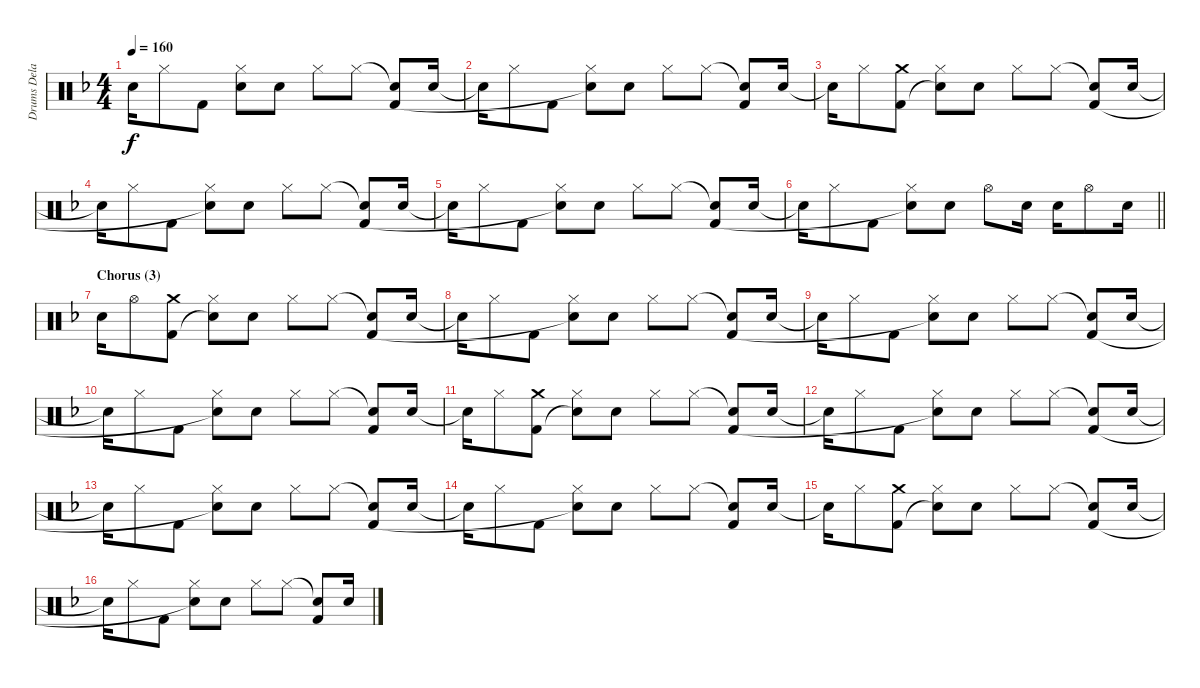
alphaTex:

\track ("Drums Delay 2" "Drums Dela") {instrument percussion}
\staff {score}
\articulation defaults
\ts (4 4)
\tempo 160
\clef neutral
\ks f "Snare (hit)"{t}.16{dy f} "Hi-Hat (closed)".8 "Kick (hit) 2".8
("Hi-Hat (closed)" "Snare (hit)"{t}).8 "Electric Snare (hit)".8 "Hi-Hat (closed)".8 "Hi-Hat (closed)".8 ("Snare (hit)"{t} "Kick (hit) 2").8 "Electric Snare (hit)".16 |
"Snare (hit)"{t}.16 "Hi-Hat (closed)".8 "Kick (hit) 2".8 ("Hi-Hat (closed)" "Snare (hit)"{t}).8 "Electric Snare (hit)".8 "Hi-Hat (closed)".8 "Hi-Hat (closed)".8 ("Snare (hit)"{t} "Kick (hit) 2").8 "Electric Snare (hit)".16 |
"Snare (hit)"{t}.16 "Hi-Hat (closed)".8 ("Crash medium (hit)" "Kick (hit) 2").8 ("Hi-Hat (closed)" "Snare (hit)"{t}).8 "Electric Snare (hit)".8 "Hi-Hat (closed)".8 "Hi-Hat (closed)".8 ("Snare (hit)"{t} "Kick (hit) 2").8 "Electric Snare (hit)".16 |
"Snare (hit)"{t}.16 "Hi-Hat (closed)".8 "Kick (hit) 2".8 ("Hi-Hat (closed)" "Snare (hit)"{t}).8 "Electric Snare (hit)".8 "Hi-Hat (closed)".8 "Hi-Hat (closed)".8 ("Snare (hit)"{t} "Kick (hit) 2").8 "Electric Snare (hit)".16 |
"Snare (hit)"{t}.16 "Hi-Hat (closed)".8 "Kick (hit) 2".8 ("Hi-Hat (closed)" "Snare (hit)"{t}).8 "Electric Snare (hit)".8 "Hi-Hat (closed)".8 "Hi-Hat (closed)".8 ("Snare (hit)"{t} "Kick (hit) 2").8 "Electric Snare (hit)".16 |
\barLineRight lightlight "Snare (hit)"{t}.16 "Hi-Hat (closed)".8 "Kick (hit) 2".8
("Hi-Hat (closed)" "Snare (hit)"{t}).8 "Electric Snare (hit)".8 "Hi-Hat (open)".8 "Electric Snare (hit)".16 "Electric Snare (hit)".16 "Hi-Hat (open)".8 "Electric Snare (hit)".16 |
\section ("" "Chorus (3)")
"Electric Snare (hit)".16 "Hi-Hat (open)".8 ("Crash medium (hit)" "Kick (hit) 2").8 ("Hi-Hat (closed)" "Snare (hit)"{t}).8 "Electric Snare (hit)".8 "Hi-Hat (closed)".8 "Hi-Hat (closed)".8 ("Snare (hit)"{t} "Kick (hit) 2").8 "Electric Snare (hit)".16 |
"Snare (hit)"{t}.16 "Hi-Hat (closed)".8 "Kick (hit) 2".8 ("Hi-Hat (closed)" "Snare (hit)"{t}).8 "Electric Snare (hit)".8 "Hi-Hat (closed)".8 "Hi-Hat (closed)".8 ("Snare (hit)"{t} "Kick (hit) 2").8 "Electric Snare (hit)".16 |
"Snare (hit)"{t}.16 "Hi-Hat (closed)".8 "Kick (hit) 2".8 ("Hi-Hat (closed)" "Snare (hit)"{t}).8 "Electric Snare (hit)".8 "Hi-Hat (closed)".8 "Hi-Hat (closed)".8 ("Snare (hit)"{t} "Kick (hit) 2").8 "Electric Snare (hit)".16 |
"Snare (hit)"{t}.16 "Hi-Hat (closed)".8 "Kick (hit) 2".8 ("Hi-Hat (closed)" "Snare (hit)"{t}).8 "Electric Snare (hit)".8 "Hi-Hat (closed)".8 "Hi-Hat (closed)".8 ("Snare (hit)"{t} "Kick (hit) 2").8 "Electric Snare (hit)".16 |
"Snare (hit)"{t}.16 "Hi-Hat (closed)".8 ("Crash medium (hit)" "Kick (hit) 2").8 ("Hi-Hat (closed)" "Snare (hit)"{t}).8 "Electric Snare (hit)".8 "Hi-Hat (closed)".8 "Hi-Hat (closed)".8 ("Snare (hit)"{t} "Kick (hit) 2").8 "Electric Snare (hit)".16 |
"Snare (hit)"{t}.16 "Hi-Hat (closed)".8 "Kick (hit) 2".8 ("Hi-Hat (closed)" "Snare (hit)"{t}).8 "Electric Snare (hit)".8 "Hi-Hat (closed)".8 "Hi-Hat (closed)".8 ("Snare (hit)"{t} "Kick (hit) 2").8 "Electric Snare (hit)".16 |
"Snare (hit)"{t}.16 "Hi-Hat (closed)".8 "Kick (hit) 2".8 ("Hi-Hat (closed)" "Snare (hit)"{t}).8 "Electric Snare (hit)".8 "Hi-Hat (closed)".8 "Hi-Hat (closed)".8 ("Snare (hit)"{t} "Kick (hit) 2").8 "Electric Snare (hit)".16 |
"Snare (hit)"{t}.16 "Hi-Hat (closed)".8 "Kick (hit) 2".8 ("Hi-Hat (closed)" "Snare (hit)"{t}).8 "Electric Snare (hit)".8 "Hi-Hat (closed)".8 "Hi-Hat (closed)".8 ("Snare (hit)"{t} "Kick (hit) 2").8 "Electric Snare (hit)".16 |
"Snare (hit)"{t}.16 "Hi-Hat (closed)".8 ("Crash medium (hit)" "Kick (hit) 2").8 ("Hi-Hat (closed)" "Snare (hit)"{t}).8 "Electric Snare (hit)".8 "Hi-Hat (closed)".8 "Hi-Hat (closed)".8 ("Snare (hit)"{t} "Kick (hit) 2").8 "Electric Snare (hit)".16 |
"Snare (hit)"{t}.16 "Hi-Hat (closed)".8 "Kick (hit) 2".8 ("Hi-Hat (closed)" "Snare (hit)"{t}).8 "Electric Snare (hit)".8 "Hi-Hat (closed)".8 "Hi-Hat (closed)".8 ("Snare (hit)"{t} "Kick (hit) 2").8 "Electric Snare (hit)".16
